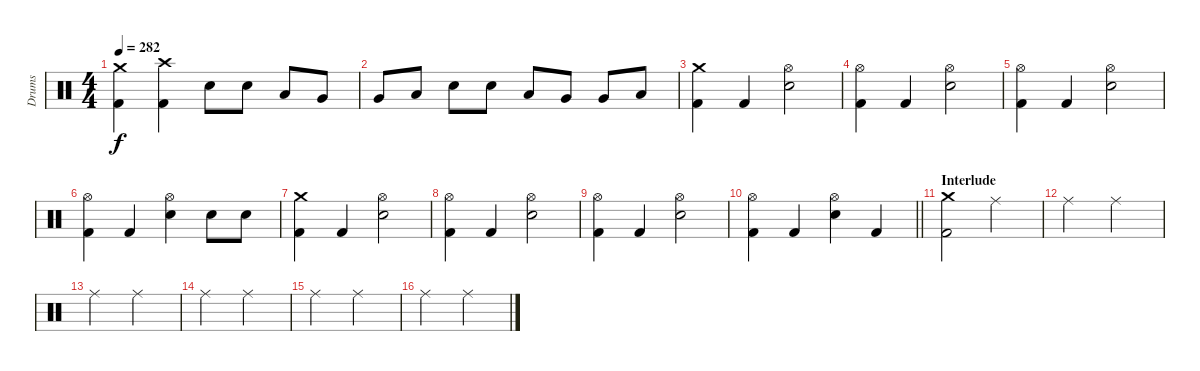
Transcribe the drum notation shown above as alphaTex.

\track ("Drums" "Drums") {instrument percussion}
\staff {score}
\articulation defaults
\ts (4 4)
\tempo 282
\clef neutral
\ks c
("Crash medium (hit)" "Kick (hit) 2").4{dy f} ("Crash high (hit)" "Kick (hit) 2").4 "Electric Snare (hit)".8 "Electric Snare (hit)".8 "Low Tom (hit)".8 "Very Low Tom (hit)".8 |
"Very Low Tom (hit)".8 "Low Floor Tom (hit)".8 "Electric Snare (hit)".8 "Electric Snare (hit)".8 "Low Tom (hit)".8 "Very Low Tom (hit)".8 "Very Low Tom (hit)".8 "Low Floor Tom (hit)".8 |
("Crash medium (hit)" "Kick (hit) 2").4 "Kick (hit) 2".4 ("Hi-Hat (open)" "Electric Snare (hit)").2 |
("Hi-Hat (open)" "Kick (hit) 2").4 "Kick (hit) 2".4 ("Hi-Hat (open)" "Electric Snare (hit)").2 |
("Hi-Hat (open)" "Kick (hit) 2").4 "Kick (hit) 2".4 ("Hi-Hat (open)" "Electric Snare (hit)").2 |
("Hi-Hat (open)" "Kick (hit) 2").4 "Kick (hit) 2".4 ("Hi-Hat (open)" "Electric Snare (hit)").4 "Electric Snare (hit)".8 "Electric Snare (hit)".8 |
("Crash medium (hit)" "Kick (hit) 2").4 "Kick (hit) 2".4 ("Hi-Hat (open)" "Electric Snare (hit)").2 |
("Hi-Hat (open)" "Kick (hit) 2").4 "Kick (hit) 2".4 ("Hi-Hat (open)" "Electric Snare (hit)").2 |
("Hi-Hat (open)" "Kick (hit) 2").4 "Kick (hit) 2".4 ("Hi-Hat (open)" "Electric Snare (hit)").2 |
\barLineRight lightlight
("Hi-Hat (open)" "Kick (hit) 2").4 "Kick (hit) 2".4 ("Hi-Hat (open)" "Electric Snare (hit)").4 "Kick (hit) 2".4 |
\section ("" "Interlude")
("Crash medium (hit)" "Kick (hit) 2").2 "Ride (middle)".2 |
"Ride (middle)".2 "Ride (middle)".2 |
"Ride (middle)".2 "Ride (middle)".2 |
"Ride (middle)".2 "Ride (middle)".2 |
"Ride (middle)".2 "Ride (middle)".2 |
"Ride (middle)".2 "Ride (middle)".2
